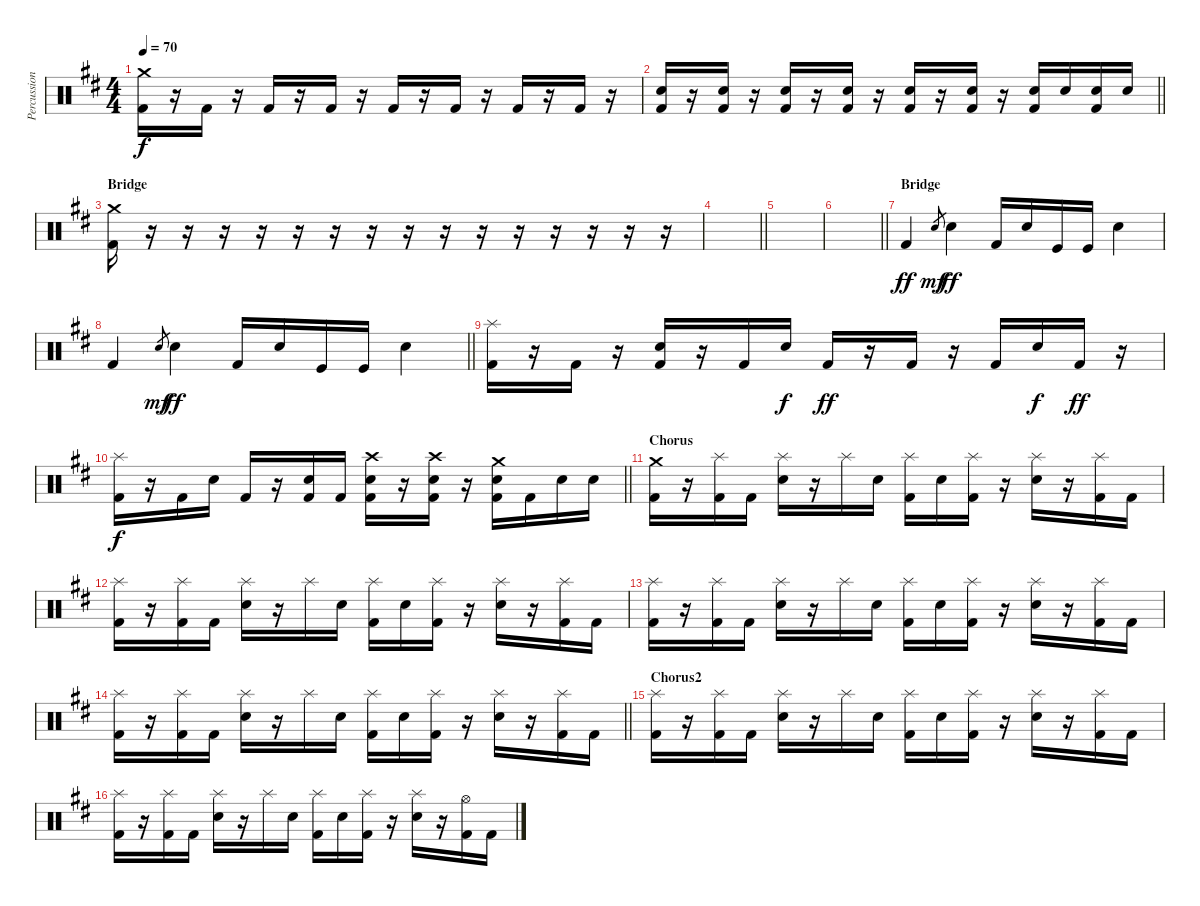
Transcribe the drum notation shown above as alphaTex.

\track ("Percussion" "Percussion") {instrument percussion}
\staff {score}
\articulation defaults
\ts (4 4)
\section ("" "")
\tempo 70
\clef neutral
\ks d
("Crash medium (hit)" "Kick (hit) 2").16{dy f} r.16 "Kick (hit) 2".16 r.16 "Kick (hit) 2".16 r.16 "Kick (hit) 2".16 r.16 "Kick (hit) 2".16 r.16 "Kick (hit) 2".16 r.16 "Kick (hit) 2".16 r.16 "Kick (hit) 2".16 r.16 |
\barLineRight lightlight
("Snare (hit) 2" "Kick (hit) 2").16 r.16 ("Snare (hit) 2" "Kick (hit) 2").16 r.16 ("Snare (hit) 2" "Kick (hit) 2").16 r.16 ("Snare (hit) 2" "Kick (hit) 2").16 r.16 ("Snare (hit) 2" "Kick (hit) 2").16 r.16 ("Snare (hit) 2" "Kick (hit) 2").16 r.16 ("Snare (hit) 2" "Kick (hit) 2").16 "Snare (hit) 2".16 ("Snare (hit) 2" "Kick (hit) 2").16 "Snare (hit) 2".16 |
\section ("" "Bridge")
("Crash medium (hit)" "Kick (hit) 2").16 r.16 r.16 r.16 r.16 r.16 r.16 r.16 r.16 r.16 r.16 r.16 r.16 r.16 r.16 r.16 |
\barLineRight lightlight
|
|
\barLineRight lightlight
|
\section ("" "Bridge")
"Kick (hit) 2".4{dy ff} "Snare (hit) 2".8{gr dy mf} "Snare (hit) 2".4{dy ff} "Kick (hit) 2".16 "Snare (hit) 2".16 "Kick (hit)".16 "Kick (hit)".16 "Snare (hit) 2".4 |
\barLineRight lightlight "Kick (hit) 2".4 "Snare (hit) 2".8{gr dy mf} "Snare (hit) 2".4{dy ff} "Kick (hit) 2".16 "Snare (hit) 2".16 "Kick (hit)".16 "Kick (hit)".16 "Snare (hit) 2".4
|
("Splash (hit)" "Kick (hit) 2").16 r.16 "Kick (hit) 2".16 r.16 ("Snare (hit) 2" "Kick (hit) 2").16 r.16 "Kick (hit) 2".16 "Snare (hit) 2".16{dy f} "Kick (hit) 2".16{dy ff} r.16 "Kick (hit) 2".16 r.16 "Kick (hit) 2".16 "Snare (hit) 2".16{dy f} "Kick (hit) 2".16{dy ff} r.16 |
\barLineRight lightlight
("Splash (hit)" "Kick (hit) 2").16{dy f} r.16 "Kick (hit) 2".16 "Snare (hit) 2".16 "Kick (hit) 2".16 r.16 ("Snare (hit) 2" "Kick (hit) 2").16 "Kick (hit) 2".16 ("Crash high (hit)" "Snare (hit) 2" "Kick (hit) 2").16 r.16 ("Crash high (hit)" "Snare (hit) 2" "Kick (hit) 2").16 r.16 ("Crash medium (hit)" "Snare (hit) 2" "Kick (hit) 2").16 "Kick (hit) 2".16 "Snare (hit) 2".16 "Snare (hit) 2".16 |
\section ("" "Chorus")
("Crash medium (hit)" "Kick (hit) 2").16 r.16 ("Splash (hit)" "Kick (hit) 2").16 "Kick (hit) 2".16 ("Splash (hit)" "Snare (hit) 2").16 r.16 "Splash (hit)".16 "Snare (hit) 2".16 ("Splash (hit)" "Kick (hit) 2").16 "Snare (hit) 2".16 ("Splash (hit)" "Kick (hit) 2").16 r.16 ("Splash (hit)" "Snare (hit) 2").16 r.16 ("Splash (hit)" "Kick (hit) 2").16 "Kick (hit) 2".16 |
("Splash (hit)" "Kick (hit) 2").16 r.16 ("Splash (hit)" "Kick (hit) 2").16 "Kick (hit) 2".16 ("Splash (hit)" "Snare (hit) 2").16 r.16 "Splash (hit)".16 "Snare (hit) 2".16 ("Splash (hit)" "Kick (hit) 2").16 "Snare (hit) 2".16 ("Splash (hit)" "Kick (hit) 2").16 r.16 ("Splash (hit)" "Snare (hit) 2").16 r.16 ("Splash (hit)" "Kick (hit) 2").16 "Kick (hit) 2".16 |
("Splash (hit)" "Kick (hit) 2").16 r.16 ("Splash (hit)" "Kick (hit) 2").16 "Kick (hit) 2".16 ("Splash (hit)" "Snare (hit) 2").16 r.16 "Splash (hit)".16 "Snare (hit) 2".16 ("Splash (hit)" "Kick (hit) 2").16 "Snare (hit) 2".16 ("Splash (hit)" "Kick (hit) 2").16 r.16 ("Splash (hit)" "Snare (hit) 2").16 r.16 ("Splash (hit)" "Kick (hit) 2").16 "Kick (hit) 2".16 |
\barLineRight lightlight
("Splash (hit)" "Kick (hit) 2").16 r.16 ("Splash (hit)" "Kick (hit) 2").16 "Kick (hit) 2".16 ("Splash (hit)" "Snare (hit) 2").16 r.16 "Splash (hit)".16 "Snare (hit) 2".16 ("Splash (hit)" "Kick (hit) 2").16 "Snare (hit) 2".16 ("Splash (hit)" "Kick (hit) 2").16 r.16 ("Splash (hit)" "Snare (hit) 2").16 r.16 ("Splash (hit)" "Kick (hit) 2").16 "Kick (hit) 2".16 |
\section ("" "Chorus2")
("Splash (hit)" "Kick (hit) 2").16 r.16 ("Splash (hit)" "Kick (hit) 2").16 "Kick (hit) 2".16 ("Splash (hit)" "Snare (hit) 2").16 r.16 "Splash (hit)".16 "Snare (hit) 2".16 ("Splash (hit)" "Kick (hit) 2").16 "Snare (hit) 2".16 ("Splash (hit)" "Kick (hit) 2").16 r.16 ("Splash (hit)" "Snare (hit) 2").16 r.16 ("Splash (hit)" "Kick (hit) 2").16 "Kick (hit) 2".16 |
("Splash (hit)" "Kick (hit) 2").16 r.16 ("Splash (hit)" "Kick (hit) 2").16 "Kick (hit) 2".16 ("Splash (hit)" "Snare (hit) 2").16 r.16 "Splash (hit)".16 "Snare (hit) 2".16 ("Splash (hit)" "Kick (hit) 2").16 "Snare (hit) 2".16 ("Splash (hit)" "Kick (hit) 2").16 r.16 ("Splash (hit)" "Snare (hit) 2").16 r.16 ("Hi-Hat (open)" "Kick (hit) 2").16 "Kick (hit) 2".16
